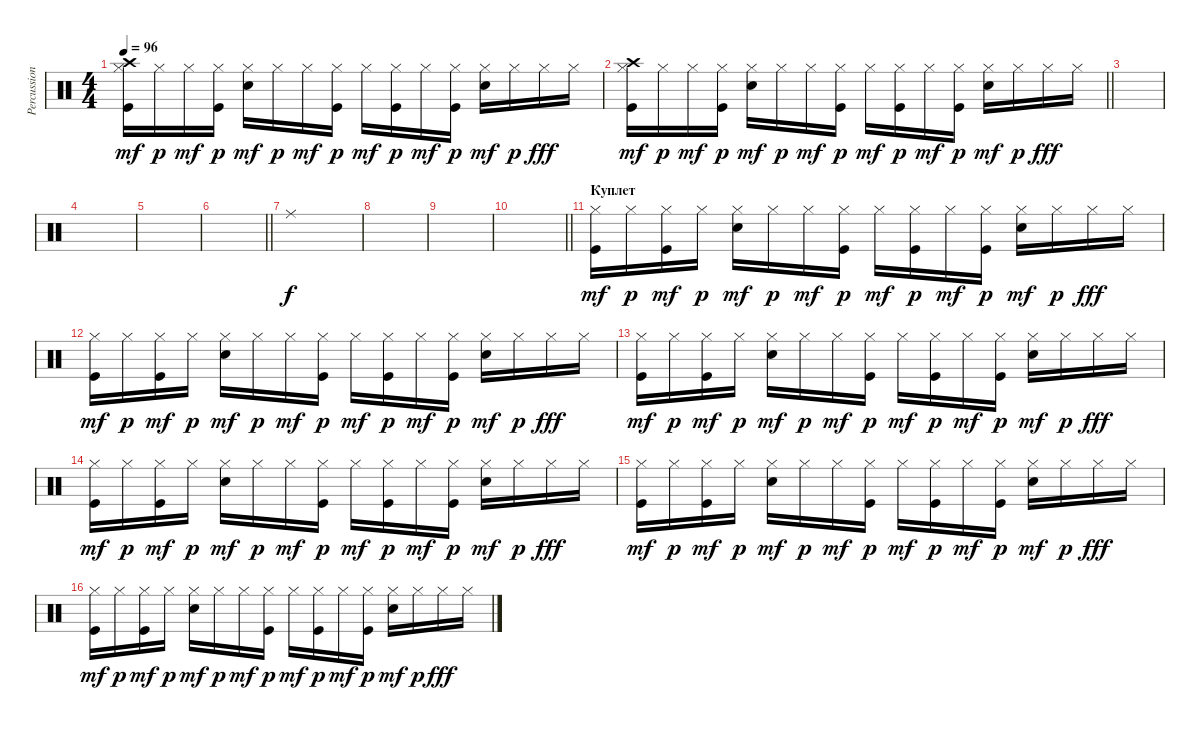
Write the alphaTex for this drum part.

\track ("Percussion" "Percussion") {instrument percussion}
\staff {score}
\articulation defaults
\ts (4 4)
\tempo 96
\clef neutral
\ks c
("Hi-Hat (closed)" "Crash high (hit)" "Kick (hit)").16{dy mf} "Hi-Hat (closed)".16{dy p} "Hi-Hat (closed)".16{dy mf} ("Hi-Hat (closed)" "Kick (hit)").16{dy p} ("Hi-Hat (closed)" "Snare (hit) 2").16{dy mf} "Hi-Hat (closed)".16{dy p} "Hi-Hat (closed)".16{dy mf} ("Hi-Hat (closed)" "Kick (hit)").16{dy p} "Hi-Hat (closed)".16{dy mf} ("Hi-Hat (closed)" "Kick (hit)").16{dy p} "Hi-Hat (closed)".16{dy mf} ("Hi-Hat (closed)" "Kick (hit)").16{dy p} ("Hi-Hat (closed)" "Snare (hit) 2").16{dy mf} "Hi-Hat (closed)".16{dy p} "Hi-Hat (closed)".16{dy fff} "Hi-Hat (closed)".16 |
\barLineRight lightlight
("Hi-Hat (closed)" "Crash high (hit)" "Kick (hit)").16{dy mf} "Hi-Hat (closed)".16{dy p} "Hi-Hat (closed)".16{dy mf} ("Hi-Hat (closed)" "Kick (hit)").16{dy p} ("Hi-Hat (closed)" "Snare (hit) 2").16{dy mf} "Hi-Hat (closed)".16{dy p} "Hi-Hat (closed)".16{dy mf} ("Hi-Hat (closed)" "Kick (hit)").16{dy p} "Hi-Hat (closed)".16{dy mf} ("Hi-Hat (closed)" "Kick (hit)").16{dy p} "Hi-Hat (closed)".16{dy mf} ("Hi-Hat (closed)" "Kick (hit)").16{dy p} ("Hi-Hat (closed)" "Snare (hit) 2").16{dy mf} "Hi-Hat (closed)".16{dy p} "Hi-Hat (closed)".16{dy fff} "Hi-Hat (closed)".16 |
|
|
|
\barLineRight lightlight
|
"Ride (middle)".1{dy f} |
|
|
\barLineRight lightlight
|
\section ("" "Куплет")
("Hi-Hat (closed)" "Kick (hit)").16{dy mf} "Hi-Hat (closed)".16{dy p} ("Hi-Hat (closed)" "Kick (hit)").16{dy mf} "Hi-Hat (closed)".16{dy p} ("Hi-Hat (closed)" "Snare (hit) 2").16{dy mf} "Hi-Hat (closed)".16{dy p} "Hi-Hat (closed)".16{dy mf} ("Hi-Hat (closed)" "Kick (hit)").16{dy p} "Hi-Hat (closed)".16{dy mf} ("Hi-Hat (closed)" "Kick (hit)").16{dy p} "Hi-Hat (closed)".16{dy mf} ("Hi-Hat (closed)" "Kick (hit)").16{dy p} ("Hi-Hat (closed)" "Snare (hit) 2").16{dy mf} "Hi-Hat (closed)".16{dy p} "Hi-Hat (closed)".16{dy fff} "Hi-Hat (closed)".16 |
("Hi-Hat (closed)" "Kick (hit)").16{dy mf} "Hi-Hat (closed)".16{dy p} ("Hi-Hat (closed)" "Kick (hit)").16{dy mf} "Hi-Hat (closed)".16{dy p} ("Hi-Hat (closed)" "Snare (hit) 2").16{dy mf} "Hi-Hat (closed)".16{dy p} "Hi-Hat (closed)".16{dy mf} ("Hi-Hat (closed)" "Kick (hit)").16{dy p} "Hi-Hat (closed)".16{dy mf} ("Hi-Hat (closed)" "Kick (hit)").16{dy p} "Hi-Hat (closed)".16{dy mf} ("Hi-Hat (closed)" "Kick (hit)").16{dy p} ("Hi-Hat (closed)" "Snare (hit) 2").16{dy mf} "Hi-Hat (closed)".16{dy p} "Hi-Hat (closed)".16{dy fff} "Hi-Hat (closed)".16 |
("Hi-Hat (closed)" "Kick (hit)").16{dy mf} "Hi-Hat (closed)".16{dy p} ("Hi-Hat (closed)" "Kick (hit)").16{dy mf} "Hi-Hat (closed)".16{dy p} ("Hi-Hat (closed)" "Snare (hit) 2").16{dy mf} "Hi-Hat (closed)".16{dy p} "Hi-Hat (closed)".16{dy mf} ("Hi-Hat (closed)" "Kick (hit)").16{dy p} "Hi-Hat (closed)".16{dy mf} ("Hi-Hat (closed)" "Kick (hit)").16{dy p} "Hi-Hat (closed)".16{dy mf} ("Hi-Hat (closed)" "Kick (hit)").16{dy p} ("Hi-Hat (closed)" "Snare (hit) 2").16{dy mf} "Hi-Hat (closed)".16{dy p} "Hi-Hat (closed)".16{dy fff} "Hi-Hat (closed)".16 |
("Hi-Hat (closed)" "Kick (hit)").16{dy mf} "Hi-Hat (closed)".16{dy p} ("Hi-Hat (closed)" "Kick (hit)").16{dy mf} "Hi-Hat (closed)".16{dy p} ("Hi-Hat (closed)" "Snare (hit) 2").16{dy mf} "Hi-Hat (closed)".16{dy p} "Hi-Hat (closed)".16{dy mf} ("Hi-Hat (closed)" "Kick (hit)").16{dy p} "Hi-Hat (closed)".16{dy mf} ("Hi-Hat (closed)" "Kick (hit)").16{dy p} "Hi-Hat (closed)".16{dy mf} ("Hi-Hat (closed)" "Kick (hit)").16{dy p} ("Hi-Hat (closed)" "Snare (hit) 2").16{dy mf} "Hi-Hat (closed)".16{dy p} "Hi-Hat (closed)".16{dy fff} "Hi-Hat (closed)".16 |
("Hi-Hat (closed)" "Kick (hit)").16{dy mf} "Hi-Hat (closed)".16{dy p} ("Hi-Hat (closed)" "Kick (hit)").16{dy mf} "Hi-Hat (closed)".16{dy p} ("Hi-Hat (closed)" "Snare (hit) 2").16{dy mf} "Hi-Hat (closed)".16{dy p} "Hi-Hat (closed)".16{dy mf} ("Hi-Hat (closed)" "Kick (hit)").16{dy p} "Hi-Hat (closed)".16{dy mf} ("Hi-Hat (closed)" "Kick (hit)").16{dy p} "Hi-Hat (closed)".16{dy mf} ("Hi-Hat (closed)" "Kick (hit)").16{dy p} ("Hi-Hat (closed)" "Snare (hit) 2").16{dy mf} "Hi-Hat (closed)".16{dy p} "Hi-Hat (closed)".16{dy fff} "Hi-Hat (closed)".16 |
("Hi-Hat (closed)" "Kick (hit)").16{dy mf} "Hi-Hat (closed)".16{dy p} ("Hi-Hat (closed)" "Kick (hit)").16{dy mf} "Hi-Hat (closed)".16{dy p} ("Hi-Hat (closed)" "Snare (hit) 2").16{dy mf} "Hi-Hat (closed)".16{dy p} "Hi-Hat (closed)".16{dy mf} ("Hi-Hat (closed)" "Kick (hit)").16{dy p} "Hi-Hat (closed)".16{dy mf} ("Hi-Hat (closed)" "Kick (hit)").16{dy p} "Hi-Hat (closed)".16{dy mf} ("Hi-Hat (closed)" "Kick (hit)").16{dy p} ("Hi-Hat (closed)" "Snare (hit) 2").16{dy mf} "Hi-Hat (closed)".16{dy p} "Hi-Hat (closed)".16{dy fff} "Hi-Hat (closed)".16
